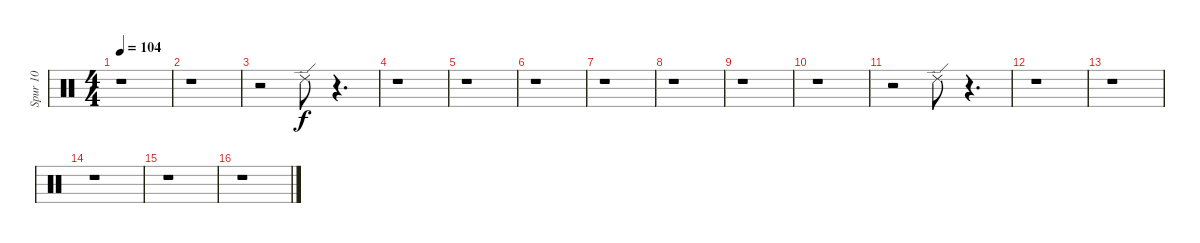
\track ("Spur 10" "Spur 10") {instrument percussion}
\staff {score}
\articulation defaults
\ts (4 4)
\tempo 104
\clef neutral
\ks c
r.1{dy f} |
r.1 |
r.2 "Ride (edge) 2".8 r.4{d} |
r.1 |
r.1 |
r.1 |
r.1 |
r.1 |
r.1 |
r.1 |
r.2 "Ride (edge) 2".8 r.4{d} |
r.1 |
r.1 |
r.1 |
r.1 |
r.1
